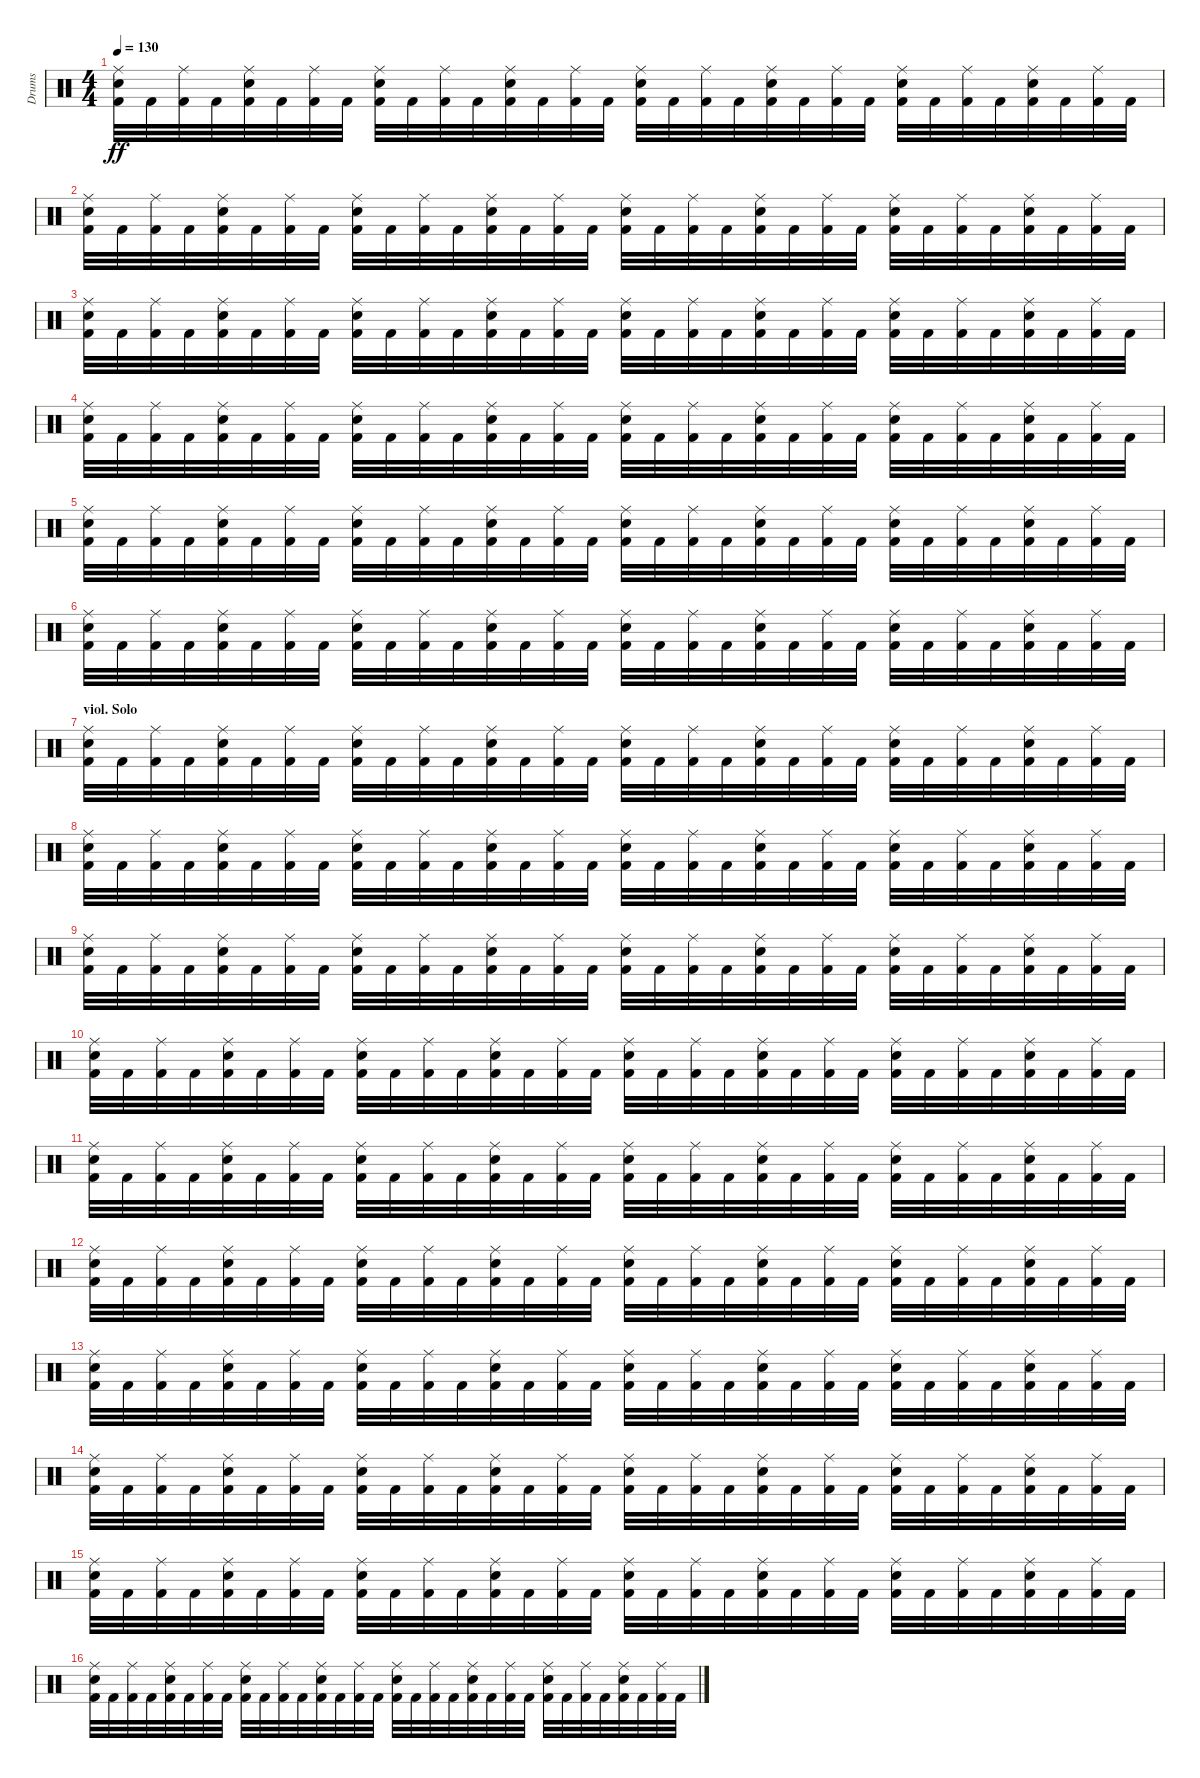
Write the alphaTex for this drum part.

\track ("Drums" "Drums") {instrument percussion}
\staff {score}
\articulation defaults
\ts (4 4)
\tempo 130
\clef neutral
\ks c
("Electric Snare (hit)" "Ride (middle)" "Kick (hit) 2").32{dy ff} "Kick (hit) 2".32 ("Ride (middle)" "Kick (hit) 2").32 "Kick (hit) 2".32 ("Electric Snare (hit)" "Ride (middle)" "Kick (hit) 2").32 "Kick (hit) 2".32 ("Ride (middle)" "Kick (hit) 2").32 "Kick (hit) 2".32 ("Electric Snare (hit)" "Ride (middle)" "Kick (hit) 2").32 "Kick (hit) 2".32 ("Ride (middle)" "Kick (hit) 2").32 "Kick (hit) 2".32 ("Electric Snare (hit)" "Ride (middle)" "Kick (hit) 2").32 "Kick (hit) 2".32 ("Ride (middle)" "Kick (hit) 2").32 "Kick (hit) 2".32 ("Electric Snare (hit)" "Ride (middle)" "Kick (hit) 2").32 "Kick (hit) 2".32 ("Ride (middle)" "Kick (hit) 2").32 "Kick (hit) 2".32 ("Electric Snare (hit)" "Ride (middle)" "Kick (hit) 2").32 "Kick (hit) 2".32 ("Ride (middle)" "Kick (hit) 2").32 "Kick (hit) 2".32 ("Electric Snare (hit)" "Ride (middle)" "Kick (hit) 2").32 "Kick (hit) 2".32 ("Ride (middle)" "Kick (hit) 2").32 "Kick (hit) 2".32 ("Electric Snare (hit)" "Ride (middle)" "Kick (hit) 2").32 "Kick (hit) 2".32 ("Ride (middle)" "Kick (hit) 2").32 "Kick (hit) 2".32 |
("Electric Snare (hit)" "Ride (middle)" "Kick (hit) 2").32 "Kick (hit) 2".32 ("Ride (middle)" "Kick (hit) 2").32 "Kick (hit) 2".32 ("Electric Snare (hit)" "Ride (middle)" "Kick (hit) 2").32 "Kick (hit) 2".32 ("Ride (middle)" "Kick (hit) 2").32 "Kick (hit) 2".32 ("Electric Snare (hit)" "Ride (middle)" "Kick (hit) 2").32 "Kick (hit) 2".32 ("Ride (middle)" "Kick (hit) 2").32 "Kick (hit) 2".32 ("Electric Snare (hit)" "Ride (middle)" "Kick (hit) 2").32 "Kick (hit) 2".32 ("Ride (middle)" "Kick (hit) 2").32 "Kick (hit) 2".32 ("Electric Snare (hit)" "Ride (middle)" "Kick (hit) 2").32 "Kick (hit) 2".32 ("Ride (middle)" "Kick (hit) 2").32 "Kick (hit) 2".32 ("Electric Snare (hit)" "Ride (middle)" "Kick (hit) 2").32 "Kick (hit) 2".32 ("Ride (middle)" "Kick (hit) 2").32 "Kick (hit) 2".32 ("Electric Snare (hit)" "Ride (middle)" "Kick (hit) 2").32 "Kick (hit) 2".32 ("Ride (middle)" "Kick (hit) 2").32 "Kick (hit) 2".32 ("Electric Snare (hit)" "Ride (middle)" "Kick (hit) 2").32 "Kick (hit) 2".32 ("Ride (middle)" "Kick (hit) 2").32 "Kick (hit) 2".32 |
("Electric Snare (hit)" "Ride (middle)" "Kick (hit) 2").32 "Kick (hit) 2".32 ("Ride (middle)" "Kick (hit) 2").32 "Kick (hit) 2".32 ("Electric Snare (hit)" "Ride (middle)" "Kick (hit) 2").32 "Kick (hit) 2".32 ("Ride (middle)" "Kick (hit) 2").32 "Kick (hit) 2".32 ("Electric Snare (hit)" "Ride (middle)" "Kick (hit) 2").32 "Kick (hit) 2".32 ("Ride (middle)" "Kick (hit) 2").32 "Kick (hit) 2".32 ("Electric Snare (hit)" "Ride (middle)" "Kick (hit) 2").32 "Kick (hit) 2".32 ("Ride (middle)" "Kick (hit) 2").32 "Kick (hit) 2".32 ("Electric Snare (hit)" "Ride (middle)" "Kick (hit) 2").32 "Kick (hit) 2".32 ("Ride (middle)" "Kick (hit) 2").32 "Kick (hit) 2".32 ("Electric Snare (hit)" "Ride (middle)" "Kick (hit) 2").32 "Kick (hit) 2".32 ("Ride (middle)" "Kick (hit) 2").32 "Kick (hit) 2".32 ("Electric Snare (hit)" "Ride (middle)" "Kick (hit) 2").32 "Kick (hit) 2".32 ("Ride (middle)" "Kick (hit) 2").32 "Kick (hit) 2".32 ("Electric Snare (hit)" "Ride (middle)" "Kick (hit) 2").32 "Kick (hit) 2".32 ("Ride (middle)" "Kick (hit) 2").32 "Kick (hit) 2".32 |
("Electric Snare (hit)" "Ride (middle)" "Kick (hit) 2").32 "Kick (hit) 2".32 ("Ride (middle)" "Kick (hit) 2").32 "Kick (hit) 2".32 ("Electric Snare (hit)" "Ride (middle)" "Kick (hit) 2").32 "Kick (hit) 2".32 ("Ride (middle)" "Kick (hit) 2").32 "Kick (hit) 2".32 ("Electric Snare (hit)" "Ride (middle)" "Kick (hit) 2").32 "Kick (hit) 2".32 ("Ride (middle)" "Kick (hit) 2").32 "Kick (hit) 2".32 ("Electric Snare (hit)" "Ride (middle)" "Kick (hit) 2").32 "Kick (hit) 2".32 ("Ride (middle)" "Kick (hit) 2").32 "Kick (hit) 2".32 ("Electric Snare (hit)" "Ride (middle)" "Kick (hit) 2").32 "Kick (hit) 2".32 ("Ride (middle)" "Kick (hit) 2").32 "Kick (hit) 2".32 ("Electric Snare (hit)" "Ride (middle)" "Kick (hit) 2").32 "Kick (hit) 2".32 ("Ride (middle)" "Kick (hit) 2").32 "Kick (hit) 2".32 ("Electric Snare (hit)" "Ride (middle)" "Kick (hit) 2").32 "Kick (hit) 2".32 ("Ride (middle)" "Kick (hit) 2").32 "Kick (hit) 2".32 ("Electric Snare (hit)" "Ride (middle)" "Kick (hit) 2").32 "Kick (hit) 2".32 ("Ride (middle)" "Kick (hit) 2").32 "Kick (hit) 2".32 |
("Electric Snare (hit)" "Ride (middle)" "Kick (hit) 2").32 "Kick (hit) 2".32 ("Ride (middle)" "Kick (hit) 2").32 "Kick (hit) 2".32 ("Electric Snare (hit)" "Ride (middle)" "Kick (hit) 2").32 "Kick (hit) 2".32 ("Ride (middle)" "Kick (hit) 2").32 "Kick (hit) 2".32 ("Electric Snare (hit)" "Ride (middle)" "Kick (hit) 2").32 "Kick (hit) 2".32 ("Ride (middle)" "Kick (hit) 2").32 "Kick (hit) 2".32 ("Electric Snare (hit)" "Ride (middle)" "Kick (hit) 2").32 "Kick (hit) 2".32 ("Ride (middle)" "Kick (hit) 2").32 "Kick (hit) 2".32 ("Electric Snare (hit)" "Ride (middle)" "Kick (hit) 2").32 "Kick (hit) 2".32 ("Ride (middle)" "Kick (hit) 2").32 "Kick (hit) 2".32 ("Electric Snare (hit)" "Ride (middle)" "Kick (hit) 2").32 "Kick (hit) 2".32 ("Ride (middle)" "Kick (hit) 2").32 "Kick (hit) 2".32 ("Electric Snare (hit)" "Ride (middle)" "Kick (hit) 2").32 "Kick (hit) 2".32 ("Ride (middle)" "Kick (hit) 2").32 "Kick (hit) 2".32 ("Electric Snare (hit)" "Ride (middle)" "Kick (hit) 2").32 "Kick (hit) 2".32 ("Ride (middle)" "Kick (hit) 2").32 "Kick (hit) 2".32 |
("Electric Snare (hit)" "Ride (middle)" "Kick (hit) 2").32 "Kick (hit) 2".32 ("Ride (middle)" "Kick (hit) 2").32 "Kick (hit) 2".32 ("Electric Snare (hit)" "Ride (middle)" "Kick (hit) 2").32 "Kick (hit) 2".32 ("Ride (middle)" "Kick (hit) 2").32 "Kick (hit) 2".32 ("Electric Snare (hit)" "Ride (middle)" "Kick (hit) 2").32 "Kick (hit) 2".32 ("Ride (middle)" "Kick (hit) 2").32 "Kick (hit) 2".32 ("Electric Snare (hit)" "Ride (middle)" "Kick (hit) 2").32 "Kick (hit) 2".32 ("Ride (middle)" "Kick (hit) 2").32 "Kick (hit) 2".32 ("Electric Snare (hit)" "Ride (middle)" "Kick (hit) 2").32 "Kick (hit) 2".32 ("Ride (middle)" "Kick (hit) 2").32 "Kick (hit) 2".32 ("Electric Snare (hit)" "Ride (middle)" "Kick (hit) 2").32 "Kick (hit) 2".32 ("Ride (middle)" "Kick (hit) 2").32 "Kick (hit) 2".32 ("Electric Snare (hit)" "Ride (middle)" "Kick (hit) 2").32 "Kick (hit) 2".32 ("Ride (middle)" "Kick (hit) 2").32 "Kick (hit) 2".32 ("Electric Snare (hit)" "Ride (middle)" "Kick (hit) 2").32 "Kick (hit) 2".32 ("Ride (middle)" "Kick (hit) 2").32 "Kick (hit) 2".32 |
\section ("" "viol. Solo")
("Electric Snare (hit)" "Ride (middle)" "Kick (hit) 2").32 "Kick (hit) 2".32 ("Ride (middle)" "Kick (hit) 2").32 "Kick (hit) 2".32 ("Electric Snare (hit)" "Ride (middle)" "Kick (hit) 2").32 "Kick (hit) 2".32 ("Ride (middle)" "Kick (hit) 2").32 "Kick (hit) 2".32 ("Electric Snare (hit)" "Ride (middle)" "Kick (hit) 2").32 "Kick (hit) 2".32 ("Ride (middle)" "Kick (hit) 2").32 "Kick (hit) 2".32 ("Electric Snare (hit)" "Ride (middle)" "Kick (hit) 2").32 "Kick (hit) 2".32 ("Ride (middle)" "Kick (hit) 2").32 "Kick (hit) 2".32 ("Electric Snare (hit)" "Ride (middle)" "Kick (hit) 2").32 "Kick (hit) 2".32 ("Ride (middle)" "Kick (hit) 2").32 "Kick (hit) 2".32 ("Electric Snare (hit)" "Ride (middle)" "Kick (hit) 2").32 "Kick (hit) 2".32 ("Ride (middle)" "Kick (hit) 2").32 "Kick (hit) 2".32 ("Electric Snare (hit)" "Ride (middle)" "Kick (hit) 2").32 "Kick (hit) 2".32 ("Ride (middle)" "Kick (hit) 2").32 "Kick (hit) 2".32 ("Electric Snare (hit)" "Ride (middle)" "Kick (hit) 2").32 "Kick (hit) 2".32 ("Ride (middle)" "Kick (hit) 2").32 "Kick (hit) 2".32 |
("Electric Snare (hit)" "Ride (middle)" "Kick (hit) 2").32 "Kick (hit) 2".32 ("Ride (middle)" "Kick (hit) 2").32 "Kick (hit) 2".32 ("Electric Snare (hit)" "Ride (middle)" "Kick (hit) 2").32 "Kick (hit) 2".32 ("Ride (middle)" "Kick (hit) 2").32 "Kick (hit) 2".32 ("Electric Snare (hit)" "Ride (middle)" "Kick (hit) 2").32 "Kick (hit) 2".32 ("Ride (middle)" "Kick (hit) 2").32 "Kick (hit) 2".32 ("Electric Snare (hit)" "Ride (middle)" "Kick (hit) 2").32 "Kick (hit) 2".32 ("Ride (middle)" "Kick (hit) 2").32 "Kick (hit) 2".32 ("Electric Snare (hit)" "Ride (middle)" "Kick (hit) 2").32 "Kick (hit) 2".32 ("Ride (middle)" "Kick (hit) 2").32 "Kick (hit) 2".32 ("Electric Snare (hit)" "Ride (middle)" "Kick (hit) 2").32 "Kick (hit) 2".32 ("Ride (middle)" "Kick (hit) 2").32 "Kick (hit) 2".32 ("Electric Snare (hit)" "Ride (middle)" "Kick (hit) 2").32 "Kick (hit) 2".32 ("Ride (middle)" "Kick (hit) 2").32 "Kick (hit) 2".32 ("Electric Snare (hit)" "Ride (middle)" "Kick (hit) 2").32 "Kick (hit) 2".32 ("Ride (middle)" "Kick (hit) 2").32 "Kick (hit) 2".32 |
("Electric Snare (hit)" "Ride (middle)" "Kick (hit) 2").32 "Kick (hit) 2".32 ("Ride (middle)" "Kick (hit) 2").32 "Kick (hit) 2".32 ("Electric Snare (hit)" "Ride (middle)" "Kick (hit) 2").32 "Kick (hit) 2".32 ("Ride (middle)" "Kick (hit) 2").32 "Kick (hit) 2".32 ("Electric Snare (hit)" "Ride (middle)" "Kick (hit) 2").32 "Kick (hit) 2".32 ("Ride (middle)" "Kick (hit) 2").32 "Kick (hit) 2".32 ("Electric Snare (hit)" "Ride (middle)" "Kick (hit) 2").32 "Kick (hit) 2".32 ("Ride (middle)" "Kick (hit) 2").32 "Kick (hit) 2".32 ("Electric Snare (hit)" "Ride (middle)" "Kick (hit) 2").32 "Kick (hit) 2".32 ("Ride (middle)" "Kick (hit) 2").32 "Kick (hit) 2".32 ("Electric Snare (hit)" "Ride (middle)" "Kick (hit) 2").32 "Kick (hit) 2".32 ("Ride (middle)" "Kick (hit) 2").32 "Kick (hit) 2".32 ("Electric Snare (hit)" "Ride (middle)" "Kick (hit) 2").32 "Kick (hit) 2".32 ("Ride (middle)" "Kick (hit) 2").32 "Kick (hit) 2".32 ("Electric Snare (hit)" "Ride (middle)" "Kick (hit) 2").32 "Kick (hit) 2".32 ("Ride (middle)" "Kick (hit) 2").32 "Kick (hit) 2".32 |
("Electric Snare (hit)" "Ride (middle)" "Kick (hit) 2").32 "Kick (hit) 2".32 ("Ride (middle)" "Kick (hit) 2").32 "Kick (hit) 2".32 ("Electric Snare (hit)" "Ride (middle)" "Kick (hit) 2").32 "Kick (hit) 2".32 ("Ride (middle)" "Kick (hit) 2").32 "Kick (hit) 2".32 ("Electric Snare (hit)" "Ride (middle)" "Kick (hit) 2").32 "Kick (hit) 2".32 ("Ride (middle)" "Kick (hit) 2").32 "Kick (hit) 2".32 ("Electric Snare (hit)" "Ride (middle)" "Kick (hit) 2").32 "Kick (hit) 2".32 ("Ride (middle)" "Kick (hit) 2").32 "Kick (hit) 2".32 ("Electric Snare (hit)" "Ride (middle)" "Kick (hit) 2").32 "Kick (hit) 2".32 ("Ride (middle)" "Kick (hit) 2").32 "Kick (hit) 2".32 ("Electric Snare (hit)" "Ride (middle)" "Kick (hit) 2").32 "Kick (hit) 2".32 ("Ride (middle)" "Kick (hit) 2").32 "Kick (hit) 2".32 ("Electric Snare (hit)" "Ride (middle)" "Kick (hit) 2").32 "Kick (hit) 2".32 ("Ride (middle)" "Kick (hit) 2").32 "Kick (hit) 2".32 ("Electric Snare (hit)" "Ride (middle)" "Kick (hit) 2").32 "Kick (hit) 2".32 ("Ride (middle)" "Kick (hit) 2").32 "Kick (hit) 2".32 |
("Electric Snare (hit)" "Ride (middle)" "Kick (hit) 2").32 "Kick (hit) 2".32 ("Ride (middle)" "Kick (hit) 2").32 "Kick (hit) 2".32 ("Electric Snare (hit)" "Ride (middle)" "Kick (hit) 2").32 "Kick (hit) 2".32 ("Ride (middle)" "Kick (hit) 2").32 "Kick (hit) 2".32 ("Electric Snare (hit)" "Ride (middle)" "Kick (hit) 2").32 "Kick (hit) 2".32 ("Ride (middle)" "Kick (hit) 2").32 "Kick (hit) 2".32 ("Electric Snare (hit)" "Ride (middle)" "Kick (hit) 2").32 "Kick (hit) 2".32 ("Ride (middle)" "Kick (hit) 2").32 "Kick (hit) 2".32 ("Electric Snare (hit)" "Ride (middle)" "Kick (hit) 2").32 "Kick (hit) 2".32 ("Ride (middle)" "Kick (hit) 2").32 "Kick (hit) 2".32 ("Electric Snare (hit)" "Ride (middle)" "Kick (hit) 2").32 "Kick (hit) 2".32 ("Ride (middle)" "Kick (hit) 2").32 "Kick (hit) 2".32 ("Electric Snare (hit)" "Ride (middle)" "Kick (hit) 2").32 "Kick (hit) 2".32 ("Ride (middle)" "Kick (hit) 2").32 "Kick (hit) 2".32 ("Electric Snare (hit)" "Ride (middle)" "Kick (hit) 2").32 "Kick (hit) 2".32 ("Ride (middle)" "Kick (hit) 2").32 "Kick (hit) 2".32 |
("Electric Snare (hit)" "Ride (middle)" "Kick (hit) 2").32 "Kick (hit) 2".32 ("Ride (middle)" "Kick (hit) 2").32 "Kick (hit) 2".32 ("Electric Snare (hit)" "Ride (middle)" "Kick (hit) 2").32 "Kick (hit) 2".32 ("Ride (middle)" "Kick (hit) 2").32 "Kick (hit) 2".32 ("Electric Snare (hit)" "Ride (middle)" "Kick (hit) 2").32 "Kick (hit) 2".32 ("Ride (middle)" "Kick (hit) 2").32 "Kick (hit) 2".32 ("Electric Snare (hit)" "Ride (middle)" "Kick (hit) 2").32 "Kick (hit) 2".32 ("Ride (middle)" "Kick (hit) 2").32 "Kick (hit) 2".32 ("Electric Snare (hit)" "Ride (middle)" "Kick (hit) 2").32 "Kick (hit) 2".32 ("Ride (middle)" "Kick (hit) 2").32 "Kick (hit) 2".32 ("Electric Snare (hit)" "Ride (middle)" "Kick (hit) 2").32 "Kick (hit) 2".32 ("Ride (middle)" "Kick (hit) 2").32 "Kick (hit) 2".32 ("Electric Snare (hit)" "Ride (middle)" "Kick (hit) 2").32 "Kick (hit) 2".32 ("Ride (middle)" "Kick (hit) 2").32 "Kick (hit) 2".32 ("Electric Snare (hit)" "Ride (middle)" "Kick (hit) 2").32 "Kick (hit) 2".32 ("Ride (middle)" "Kick (hit) 2").32 "Kick (hit) 2".32 |
("Electric Snare (hit)" "Ride (middle)" "Kick (hit) 2").32 "Kick (hit) 2".32 ("Ride (middle)" "Kick (hit) 2").32 "Kick (hit) 2".32 ("Electric Snare (hit)" "Ride (middle)" "Kick (hit) 2").32 "Kick (hit) 2".32 ("Ride (middle)" "Kick (hit) 2").32 "Kick (hit) 2".32 ("Electric Snare (hit)" "Ride (middle)" "Kick (hit) 2").32 "Kick (hit) 2".32 ("Ride (middle)" "Kick (hit) 2").32 "Kick (hit) 2".32 ("Electric Snare (hit)" "Ride (middle)" "Kick (hit) 2").32 "Kick (hit) 2".32 ("Ride (middle)" "Kick (hit) 2").32 "Kick (hit) 2".32 ("Electric Snare (hit)" "Ride (middle)" "Kick (hit) 2").32 "Kick (hit) 2".32 ("Ride (middle)" "Kick (hit) 2").32 "Kick (hit) 2".32 ("Electric Snare (hit)" "Ride (middle)" "Kick (hit) 2").32 "Kick (hit) 2".32 ("Ride (middle)" "Kick (hit) 2").32 "Kick (hit) 2".32 ("Electric Snare (hit)" "Ride (middle)" "Kick (hit) 2").32 "Kick (hit) 2".32 ("Ride (middle)" "Kick (hit) 2").32 "Kick (hit) 2".32 ("Electric Snare (hit)" "Ride (middle)" "Kick (hit) 2").32 "Kick (hit) 2".32 ("Ride (middle)" "Kick (hit) 2").32 "Kick (hit) 2".32 |
("Electric Snare (hit)" "Ride (middle)" "Kick (hit) 2").32 "Kick (hit) 2".32 ("Ride (middle)" "Kick (hit) 2").32 "Kick (hit) 2".32 ("Electric Snare (hit)" "Ride (middle)" "Kick (hit) 2").32 "Kick (hit) 2".32 ("Ride (middle)" "Kick (hit) 2").32 "Kick (hit) 2".32 ("Electric Snare (hit)" "Ride (middle)" "Kick (hit) 2").32 "Kick (hit) 2".32 ("Ride (middle)" "Kick (hit) 2").32 "Kick (hit) 2".32 ("Electric Snare (hit)" "Ride (middle)" "Kick (hit) 2").32 "Kick (hit) 2".32 ("Ride (middle)" "Kick (hit) 2").32 "Kick (hit) 2".32 ("Electric Snare (hit)" "Ride (middle)" "Kick (hit) 2").32 "Kick (hit) 2".32 ("Ride (middle)" "Kick (hit) 2").32 "Kick (hit) 2".32 ("Electric Snare (hit)" "Ride (middle)" "Kick (hit) 2").32 "Kick (hit) 2".32 ("Ride (middle)" "Kick (hit) 2").32 "Kick (hit) 2".32 ("Electric Snare (hit)" "Ride (middle)" "Kick (hit) 2").32 "Kick (hit) 2".32 ("Ride (middle)" "Kick (hit) 2").32 "Kick (hit) 2".32 ("Electric Snare (hit)" "Ride (middle)" "Kick (hit) 2").32 "Kick (hit) 2".32 ("Ride (middle)" "Kick (hit) 2").32 "Kick (hit) 2".32 |
("Electric Snare (hit)" "Ride (middle)" "Kick (hit) 2").32 "Kick (hit) 2".32 ("Ride (middle)" "Kick (hit) 2").32 "Kick (hit) 2".32 ("Electric Snare (hit)" "Ride (middle)" "Kick (hit) 2").32 "Kick (hit) 2".32 ("Ride (middle)" "Kick (hit) 2").32 "Kick (hit) 2".32 ("Electric Snare (hit)" "Ride (middle)" "Kick (hit) 2").32 "Kick (hit) 2".32 ("Ride (middle)" "Kick (hit) 2").32 "Kick (hit) 2".32 ("Electric Snare (hit)" "Ride (middle)" "Kick (hit) 2").32 "Kick (hit) 2".32 ("Ride (middle)" "Kick (hit) 2").32 "Kick (hit) 2".32 ("Electric Snare (hit)" "Ride (middle)" "Kick (hit) 2").32 "Kick (hit) 2".32 ("Ride (middle)" "Kick (hit) 2").32 "Kick (hit) 2".32 ("Electric Snare (hit)" "Ride (middle)" "Kick (hit) 2").32 "Kick (hit) 2".32 ("Ride (middle)" "Kick (hit) 2").32 "Kick (hit) 2".32 ("Electric Snare (hit)" "Ride (middle)" "Kick (hit) 2").32 "Kick (hit) 2".32 ("Ride (middle)" "Kick (hit) 2").32 "Kick (hit) 2".32 ("Electric Snare (hit)" "Ride (middle)" "Kick (hit) 2").32 "Kick (hit) 2".32 ("Ride (middle)" "Kick (hit) 2").32 "Kick (hit) 2".32 |
("Electric Snare (hit)" "Ride (middle)" "Kick (hit) 2").32 "Kick (hit) 2".32 ("Ride (middle)" "Kick (hit) 2").32 "Kick (hit) 2".32 ("Electric Snare (hit)" "Ride (middle)" "Kick (hit) 2").32 "Kick (hit) 2".32 ("Ride (middle)" "Kick (hit) 2").32 "Kick (hit) 2".32 ("Electric Snare (hit)" "Ride (middle)" "Kick (hit) 2").32 "Kick (hit) 2".32 ("Ride (middle)" "Kick (hit) 2").32 "Kick (hit) 2".32 ("Electric Snare (hit)" "Ride (middle)" "Kick (hit) 2").32 "Kick (hit) 2".32 ("Ride (middle)" "Kick (hit) 2").32 "Kick (hit) 2".32 ("Electric Snare (hit)" "Ride (middle)" "Kick (hit) 2").32 "Kick (hit) 2".32 ("Ride (middle)" "Kick (hit) 2").32 "Kick (hit) 2".32 ("Electric Snare (hit)" "Ride (middle)" "Kick (hit) 2").32 "Kick (hit) 2".32 ("Ride (middle)" "Kick (hit) 2").32 "Kick (hit) 2".32 ("Electric Snare (hit)" "Ride (middle)" "Kick (hit) 2").32 "Kick (hit) 2".32 ("Ride (middle)" "Kick (hit) 2").32 "Kick (hit) 2".32 ("Electric Snare (hit)" "Ride (middle)" "Kick (hit) 2").32 "Kick (hit) 2".32 ("Ride (middle)" "Kick (hit) 2").32 "Kick (hit) 2".32
